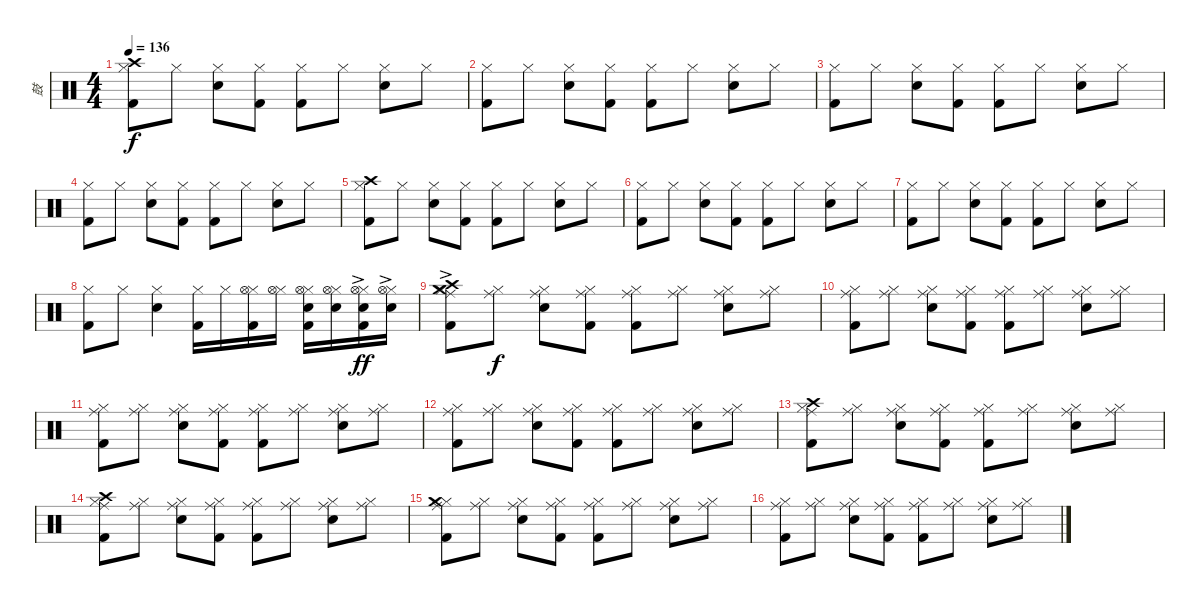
\track ("鼓" "鼓") {instrument percussion}
\staff {score}
\articulation defaults
\ts (4 4)
\tempo 136
\clef neutral
\ks c
("Hi-Hat (closed)" "Crash high (hit)" "Kick (hit) 2").8{dy f} "Hi-Hat (closed)".8 ("Hi-Hat (closed)" "Electric Snare (hit)").8 ("Hi-Hat (closed)" "Kick (hit) 2").8 ("Hi-Hat (closed)" "Kick (hit) 2").8 "Hi-Hat (closed)".8 ("Hi-Hat (closed)" "Electric Snare (hit)").8 "Hi-Hat (closed)".8 |
("Hi-Hat (closed)" "Kick (hit) 2").8 "Hi-Hat (closed)".8 ("Hi-Hat (closed)" "Electric Snare (hit)").8 ("Hi-Hat (closed)" "Kick (hit) 2").8 ("Hi-Hat (closed)" "Kick (hit) 2").8 "Hi-Hat (closed)".8 ("Hi-Hat (closed)" "Electric Snare (hit)").8 "Hi-Hat (closed)".8 |
("Hi-Hat (closed)" "Kick (hit) 2").8 "Hi-Hat (closed)".8 ("Hi-Hat (closed)" "Electric Snare (hit)").8 ("Hi-Hat (closed)" "Kick (hit) 2").8 ("Hi-Hat (closed)" "Kick (hit) 2").8 "Hi-Hat (closed)".8 ("Hi-Hat (closed)" "Electric Snare (hit)").8 "Hi-Hat (closed)".8 |
("Hi-Hat (closed)" "Kick (hit) 2").8 "Hi-Hat (closed)".8 ("Hi-Hat (closed)" "Electric Snare (hit)").8 ("Hi-Hat (closed)" "Kick (hit) 2").8 ("Hi-Hat (closed)" "Kick (hit) 2").8 "Hi-Hat (closed)".8 ("Hi-Hat (closed)" "Electric Snare (hit)").8 "Hi-Hat (closed)".8 |
("Hi-Hat (closed)" "Crash high (hit)" "Kick (hit) 2").8 "Hi-Hat (closed)".8 ("Hi-Hat (closed)" "Electric Snare (hit)").8 ("Hi-Hat (closed)" "Kick (hit) 2").8 ("Hi-Hat (closed)" "Kick (hit) 2").8 "Hi-Hat (closed)".8 ("Hi-Hat (closed)" "Electric Snare (hit)").8 "Hi-Hat (closed)".8 |
("Hi-Hat (closed)" "Kick (hit) 2").8 "Hi-Hat (closed)".8 ("Hi-Hat (closed)" "Electric Snare (hit)").8 ("Hi-Hat (closed)" "Kick (hit) 2").8 ("Hi-Hat (closed)" "Kick (hit) 2").8 "Hi-Hat (closed)".8 ("Hi-Hat (closed)" "Electric Snare (hit)").8 "Hi-Hat (closed)".8 |
("Hi-Hat (closed)" "Kick (hit) 2").8 "Hi-Hat (closed)".8 ("Hi-Hat (closed)" "Electric Snare (hit)").8 ("Hi-Hat (closed)" "Kick (hit) 2").8 ("Hi-Hat (closed)" "Kick (hit) 2").8 "Hi-Hat (closed)".8 ("Hi-Hat (closed)" "Electric Snare (hit)").8 "Hi-Hat (closed)".8 |
("Hi-Hat (closed)" "Kick (hit) 2").8 "Hi-Hat (closed)".8 ("Electric Snare (hit)" "Hi-Hat (closed)").4 ("Hi-Hat (closed)" "Kick (hit) 2").16 "Hi-Hat (closed)".16 ("Hi-Hat (closed)" "Hi-Hat (open)" "Kick (hit) 2").16 ("Hi-Hat (closed)" "Hi-Hat (open)").16 ("Hi-Hat (closed)" "Hi-Hat (open)" "Electric Snare (hit)" "Kick (hit) 2").16 ("Hi-Hat (closed)" "Hi-Hat (open)" "Electric Snare (hit)").16 ("Hi-Hat (closed)"{ac} "Hi-Hat (open)"{ac} "Electric Snare (hit)"{ac} "Kick (hit) 2"{ac}).16{dy ff} ("Hi-Hat (closed)"{ac} "Hi-Hat (open)"{ac} "Electric Snare (hit)"{ac}).16 |
("Ride (middle)"{ac} "Hi-Hat (closed)"{ac} "Crash high (hit)"{ac} "Crash medium (hit)"{ac} "Kick (hit) 2"{ac}).8 ("Ride (middle)" "Hi-Hat (closed)").8{dy f} ("Ride (middle)" "Hi-Hat (closed)" "Electric Snare (hit)").8 ("Ride (middle)" "Hi-Hat (closed)" "Kick (hit) 2").8 ("Ride (middle)" "Hi-Hat (closed)" "Kick (hit) 2").8 ("Ride (middle)" "Hi-Hat (closed)").8 ("Ride (middle)" "Hi-Hat (closed)" "Electric Snare (hit)").8 ("Ride (middle)" "Hi-Hat (closed)").8 |
("Ride (middle)" "Hi-Hat (closed)" "Kick (hit) 2").8 ("Ride (middle)" "Hi-Hat (closed)").8 ("Ride (middle)" "Hi-Hat (closed)" "Electric Snare (hit)").8 ("Ride (middle)" "Hi-Hat (closed)" "Kick (hit) 2").8 ("Ride (middle)" "Hi-Hat (closed)" "Kick (hit) 2").8 ("Ride (middle)" "Hi-Hat (closed)").8 ("Ride (middle)" "Hi-Hat (closed)" "Electric Snare (hit)").8 ("Ride (middle)" "Hi-Hat (closed)").8 |
("Ride (middle)" "Hi-Hat (closed)" "Kick (hit) 2").8 ("Ride (middle)" "Hi-Hat (closed)").8 ("Ride (middle)" "Hi-Hat (closed)" "Electric Snare (hit)").8 ("Ride (middle)" "Hi-Hat (closed)" "Kick (hit) 2").8 ("Ride (middle)" "Hi-Hat (closed)" "Kick (hit) 2").8 ("Ride (middle)" "Hi-Hat (closed)").8 ("Ride (middle)" "Hi-Hat (closed)" "Electric Snare (hit)").8 ("Ride (middle)" "Hi-Hat (closed)").8 |
("Ride (middle)" "Hi-Hat (closed)" "Kick (hit) 2").8 ("Ride (middle)" "Hi-Hat (closed)").8 ("Ride (middle)" "Hi-Hat (closed)" "Electric Snare (hit)").8 ("Ride (middle)" "Hi-Hat (closed)" "Kick (hit) 2").8 ("Ride (middle)" "Hi-Hat (closed)" "Kick (hit) 2").8 ("Ride (middle)" "Hi-Hat (closed)").8 ("Ride (middle)" "Hi-Hat (closed)" "Electric Snare (hit)").8 ("Ride (middle)" "Hi-Hat (closed)").8 |
("Ride (middle)" "Hi-Hat (closed)" "Crash high (hit)" "Kick (hit) 2").8 ("Ride (middle)" "Hi-Hat (closed)").8 ("Ride (middle)" "Hi-Hat (closed)" "Electric Snare (hit)").8 ("Ride (middle)" "Hi-Hat (closed)" "Kick (hit) 2").8 ("Ride (middle)" "Hi-Hat (closed)" "Kick (hit) 2").8 ("Ride (middle)" "Hi-Hat (closed)").8 ("Ride (middle)" "Hi-Hat (closed)" "Electric Snare (hit)").8 ("Ride (middle)" "Hi-Hat (closed)").8 |
("Ride (middle)" "Hi-Hat (closed)" "Crash high (hit)" "Kick (hit) 2").8 ("Ride (middle)" "Hi-Hat (closed)").8 ("Ride (middle)" "Hi-Hat (closed)" "Electric Snare (hit)").8 ("Ride (middle)" "Hi-Hat (closed)" "Kick (hit) 2").8 ("Ride (middle)" "Hi-Hat (closed)" "Kick (hit) 2").8 ("Ride (middle)" "Hi-Hat (closed)").8 ("Ride (middle)" "Hi-Hat (closed)" "Electric Snare (hit)").8 ("Ride (middle)" "Hi-Hat (closed)").8 |
("Ride (middle)" "Hi-Hat (closed)" "Crash medium (hit)" "Kick (hit) 2").8 ("Ride (middle)" "Hi-Hat (closed)").8 ("Ride (middle)" "Hi-Hat (closed)" "Electric Snare (hit)").8 ("Ride (middle)" "Hi-Hat (closed)" "Kick (hit) 2").8 ("Ride (middle)" "Hi-Hat (closed)" "Kick (hit) 2").8 ("Ride (middle)" "Hi-Hat (closed)").8 ("Ride (middle)" "Hi-Hat (closed)" "Electric Snare (hit)").8 ("Ride (middle)" "Hi-Hat (closed)").8 |
("Ride (middle)" "Hi-Hat (closed)" "Kick (hit) 2").8 ("Ride (middle)" "Hi-Hat (closed)").8 ("Ride (middle)" "Hi-Hat (closed)" "Electric Snare (hit)").8 ("Ride (middle)" "Hi-Hat (closed)" "Kick (hit) 2").8 ("Ride (middle)" "Hi-Hat (closed)" "Kick (hit) 2").8 ("Ride (middle)" "Hi-Hat (closed)").8 ("Ride (middle)" "Hi-Hat (closed)" "Electric Snare (hit)").8 ("Ride (middle)" "Hi-Hat (closed)").8
